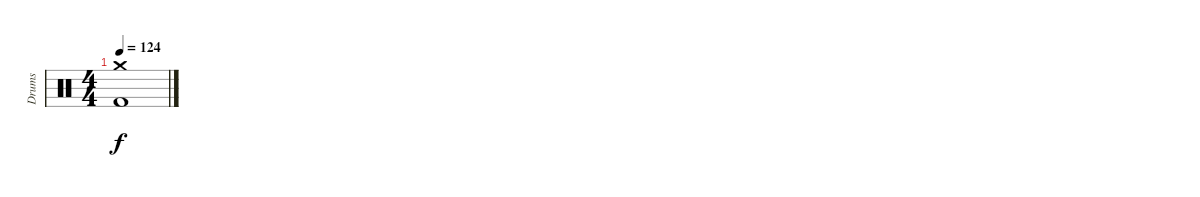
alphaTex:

\track ("Drums" "Drums") {instrument percussion}
\staff {score}
\articulation defaults
\ts (4 4)
\tempo 124
\clef neutral
\ks c
("Crash medium (hit)" "Kick (hit) 2").1{dy f}
